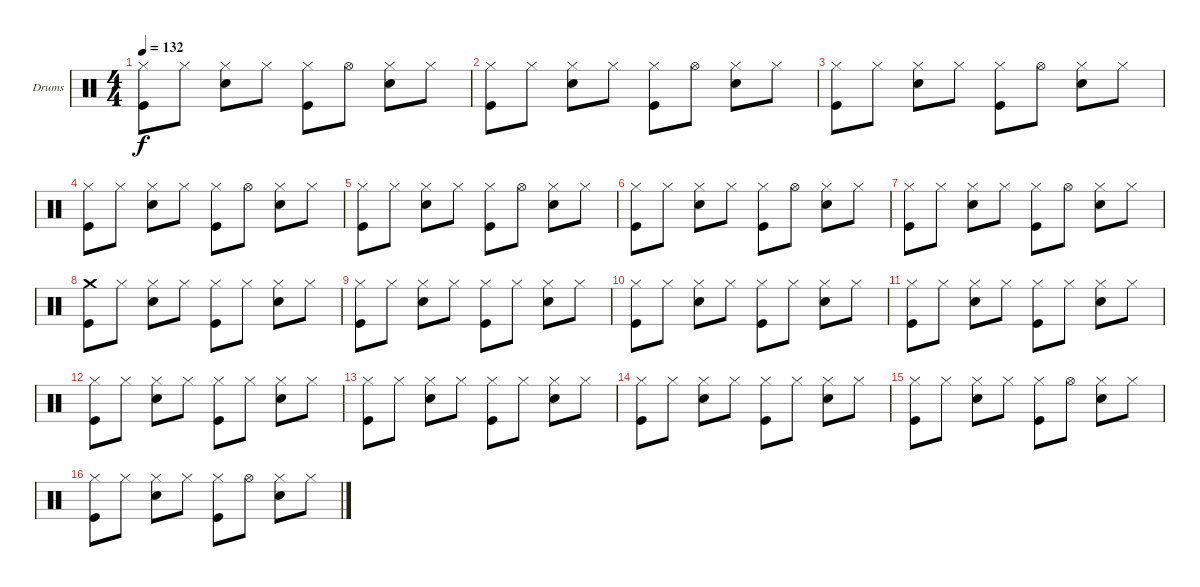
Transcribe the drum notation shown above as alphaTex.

\defaultSystemsLayout 4
\bracketExtendMode groupsimilarinstruments
\firstSystemTrackNameOrientation horizontal
\otherSystemsTrackNameOrientation horizontal
\track ("Fab Moretti" "Drums") {instrument percussion}
\staff {score}
\articulation defaults
\ts (4 4)
\tempo 132
\clef neutral
\ks c
("Hi-Hat (closed)" "Kick (hit)").8{dy f} "Hi-Hat (closed)".8 ("Hi-Hat (closed)" "Snare (hit) 2").8 "Hi-Hat (closed)".8 ("Hi-Hat (closed)" "Kick (hit)").8 "Hi-Hat (open)".8 ("Hi-Hat (closed)" "Snare (hit) 2").8 "Hi-Hat (closed)".8 |
("Hi-Hat (closed)" "Kick (hit)").8 "Hi-Hat (closed)".8 ("Hi-Hat (closed)" "Snare (hit) 2").8 "Hi-Hat (closed)".8 ("Hi-Hat (closed)" "Kick (hit)").8 "Hi-Hat (open)".8 ("Hi-Hat (closed)" "Snare (hit) 2").8 "Hi-Hat (closed)".8 |
("Hi-Hat (closed)" "Kick (hit)").8 "Hi-Hat (closed)".8 ("Hi-Hat (closed)" "Snare (hit) 2").8 "Hi-Hat (closed)".8 ("Hi-Hat (closed)" "Kick (hit)").8 "Hi-Hat (open)".8 ("Hi-Hat (closed)" "Snare (hit) 2").8 "Hi-Hat (closed)".8 |
("Hi-Hat (closed)" "Kick (hit)").8 "Hi-Hat (closed)".8 ("Hi-Hat (closed)" "Snare (hit) 2").8 "Hi-Hat (closed)".8 ("Hi-Hat (closed)" "Kick (hit)").8 "Hi-Hat (open)".8 ("Hi-Hat (closed)" "Snare (hit) 2").8 "Hi-Hat (closed)".8 |
("Hi-Hat (closed)" "Kick (hit)").8 "Hi-Hat (closed)".8 ("Hi-Hat (closed)" "Snare (hit) 2").8 "Hi-Hat (closed)".8 ("Hi-Hat (closed)" "Kick (hit)").8 "Hi-Hat (open)".8 ("Hi-Hat (closed)" "Snare (hit) 2").8 "Hi-Hat (closed)".8 |
("Hi-Hat (closed)" "Kick (hit)").8 "Hi-Hat (closed)".8 ("Hi-Hat (closed)" "Snare (hit) 2").8 "Hi-Hat (closed)".8 ("Hi-Hat (closed)" "Kick (hit)").8 "Hi-Hat (open)".8 ("Hi-Hat (closed)" "Snare (hit) 2").8 "Hi-Hat (closed)".8 |
("Hi-Hat (closed)" "Kick (hit)").8 "Hi-Hat (closed)".8 ("Hi-Hat (closed)" "Snare (hit) 2").8 "Hi-Hat (closed)".8 ("Hi-Hat (closed)" "Kick (hit)").8 "Hi-Hat (open)".8 ("Hi-Hat (closed)" "Snare (hit) 2").8 "Hi-Hat (closed)".8 |
("Crash medium (hit)" "Kick (hit)").8 "Hi-Hat (closed)".8 ("Hi-Hat (closed)" "Snare (hit) 2").8 "Hi-Hat (closed)".8 ("Hi-Hat (closed)" "Kick (hit)").8 "Hi-Hat (closed)".8 ("Hi-Hat (closed)" "Snare (hit) 2").8 "Hi-Hat (closed)".8 |
("Hi-Hat (closed)" "Kick (hit)").8 "Hi-Hat (closed)".8 ("Hi-Hat (closed)" "Snare (hit) 2").8 "Hi-Hat (closed)".8 ("Hi-Hat (closed)" "Kick (hit)").8 "Hi-Hat (closed)".8 ("Hi-Hat (closed)" "Snare (hit) 2").8 "Hi-Hat (closed)".8 |
("Hi-Hat (closed)" "Kick (hit)").8 "Hi-Hat (closed)".8 ("Hi-Hat (closed)" "Snare (hit) 2").8 "Hi-Hat (closed)".8 ("Hi-Hat (closed)" "Kick (hit)").8 "Hi-Hat (closed)".8 ("Hi-Hat (closed)" "Snare (hit) 2").8 "Hi-Hat (closed)".8 |
("Hi-Hat (closed)" "Kick (hit)").8 "Hi-Hat (closed)".8 ("Hi-Hat (closed)" "Snare (hit) 2").8 "Hi-Hat (closed)".8 ("Hi-Hat (closed)" "Kick (hit)").8 "Hi-Hat (closed)".8 ("Hi-Hat (closed)" "Snare (hit) 2").8 "Hi-Hat (closed)".8 |
("Hi-Hat (closed)" "Kick (hit)").8 "Hi-Hat (closed)".8 ("Hi-Hat (closed)" "Snare (hit) 2").8 "Hi-Hat (closed)".8 ("Hi-Hat (closed)" "Kick (hit)").8 "Hi-Hat (closed)".8 ("Hi-Hat (closed)" "Snare (hit) 2").8 "Hi-Hat (closed)".8 |
("Hi-Hat (closed)" "Kick (hit)").8 "Hi-Hat (closed)".8 ("Hi-Hat (closed)" "Snare (hit) 2").8 "Hi-Hat (closed)".8 ("Hi-Hat (closed)" "Kick (hit)").8 "Hi-Hat (closed)".8 ("Hi-Hat (closed)" "Snare (hit) 2").8 "Hi-Hat (closed)".8 |
("Hi-Hat (closed)" "Kick (hit)").8 "Hi-Hat (closed)".8 ("Hi-Hat (closed)" "Snare (hit) 2").8 "Hi-Hat (closed)".8 ("Hi-Hat (closed)" "Kick (hit)").8 "Hi-Hat (closed)".8 ("Hi-Hat (closed)" "Snare (hit) 2").8 "Hi-Hat (closed)".8 |
("Hi-Hat (closed)" "Kick (hit)").8 "Hi-Hat (closed)".8 ("Hi-Hat (closed)" "Snare (hit) 2").8 "Hi-Hat (closed)".8 ("Hi-Hat (closed)" "Kick (hit)").8 "Hi-Hat (open)".8 ("Hi-Hat (closed)" "Snare (hit) 2").8 "Hi-Hat (closed)".8 |
("Hi-Hat (closed)" "Kick (hit)").8 "Hi-Hat (closed)".8 ("Hi-Hat (closed)" "Snare (hit) 2").8 "Hi-Hat (closed)".8 ("Hi-Hat (closed)" "Kick (hit)").8 "Hi-Hat (open)".8 ("Hi-Hat (closed)" "Snare (hit) 2").8 "Hi-Hat (closed)".8
